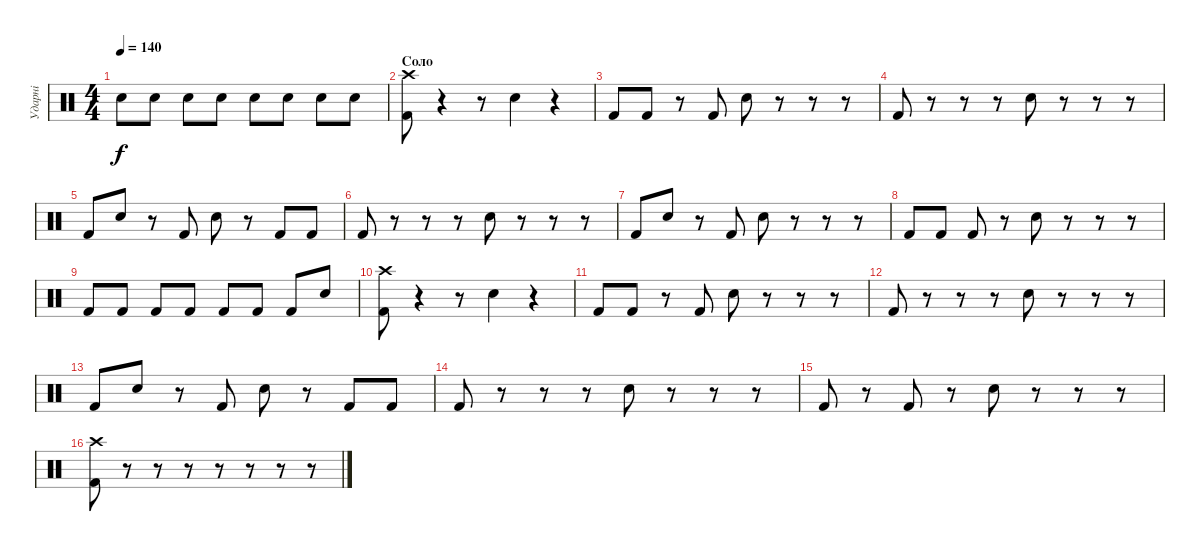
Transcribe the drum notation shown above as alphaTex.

\track ("Ударні" "Ударні") {instrument percussion}
\staff {score}
\articulation defaults
\ts (4 4)
\tempo 140
\clef neutral
\ks c "Snare (hit) 2".8{dy f} "Snare (hit) 2".8 "Snare (hit) 2".8 "Snare (hit) 2".8 "Snare (hit) 2".8 "Snare (hit) 2".8 "Snare (hit) 2".8 "Snare (hit) 2".8
|
\section ("" "Cоло")
("Kick (hit) 2" "Crash high (hit)").8 r.4 r.8 "Snare (hit) 2".4 r.4 |
"Kick (hit) 2".8 "Kick (hit) 2".8 r.8 "Kick (hit) 2".8 "Snare (hit) 2".8 r.8 r.8 r.8 |
"Kick (hit) 2".8 r.8 r.8 r.8 "Snare (hit) 2".8 r.8 r.8 r.8 |
"Kick (hit) 2".8 "Snare (hit) 2".8 r.8 "Kick (hit) 2".8 "Snare (hit) 2".8 r.8 "Kick (hit) 2".8 "Kick (hit) 2".8 |
"Kick (hit) 2".8 r.8 r.8 r.8 "Snare (hit) 2".8 r.8 r.8 r.8 |
"Kick (hit) 2".8 "Snare (hit) 2".8 r.8 "Kick (hit) 2".8 "Snare (hit) 2".8 r.8 r.8 r.8 |
"Kick (hit) 2".8 "Kick (hit) 2".8 "Kick (hit) 2".8 r.8 "Snare (hit) 2".8 r.8 r.8 r.8 |
"Kick (hit) 2".8 "Kick (hit) 2".8 "Kick (hit) 2".8 "Kick (hit) 2".8 "Kick (hit) 2".8 "Kick (hit) 2".8 "Kick (hit) 2".8 "Snare (hit) 2".8 |
("Kick (hit) 2" "Crash high (hit)").8 r.4 r.8 "Snare (hit) 2".4 r.4 |
"Kick (hit) 2".8 "Kick (hit) 2".8 r.8 "Kick (hit) 2".8 "Snare (hit) 2".8 r.8 r.8 r.8 |
"Kick (hit) 2".8 r.8 r.8 r.8 "Snare (hit) 2".8 r.8 r.8 r.8 |
"Kick (hit) 2".8 "Snare (hit) 2".8 r.8 "Kick (hit) 2".8 "Snare (hit) 2".8 r.8 "Kick (hit) 2".8 "Kick (hit) 2".8 |
"Kick (hit) 2".8 r.8 r.8 r.8 "Snare (hit) 2".8 r.8 r.8 r.8 |
"Kick (hit) 2".8 r.8 "Kick (hit) 2".8 r.8 "Snare (hit) 2".8 r.8 r.8 r.8 |
("Kick (hit) 2" "Crash high (hit)").8 r.8 r.8 r.8 r.8 r.8 r.8 r.8
